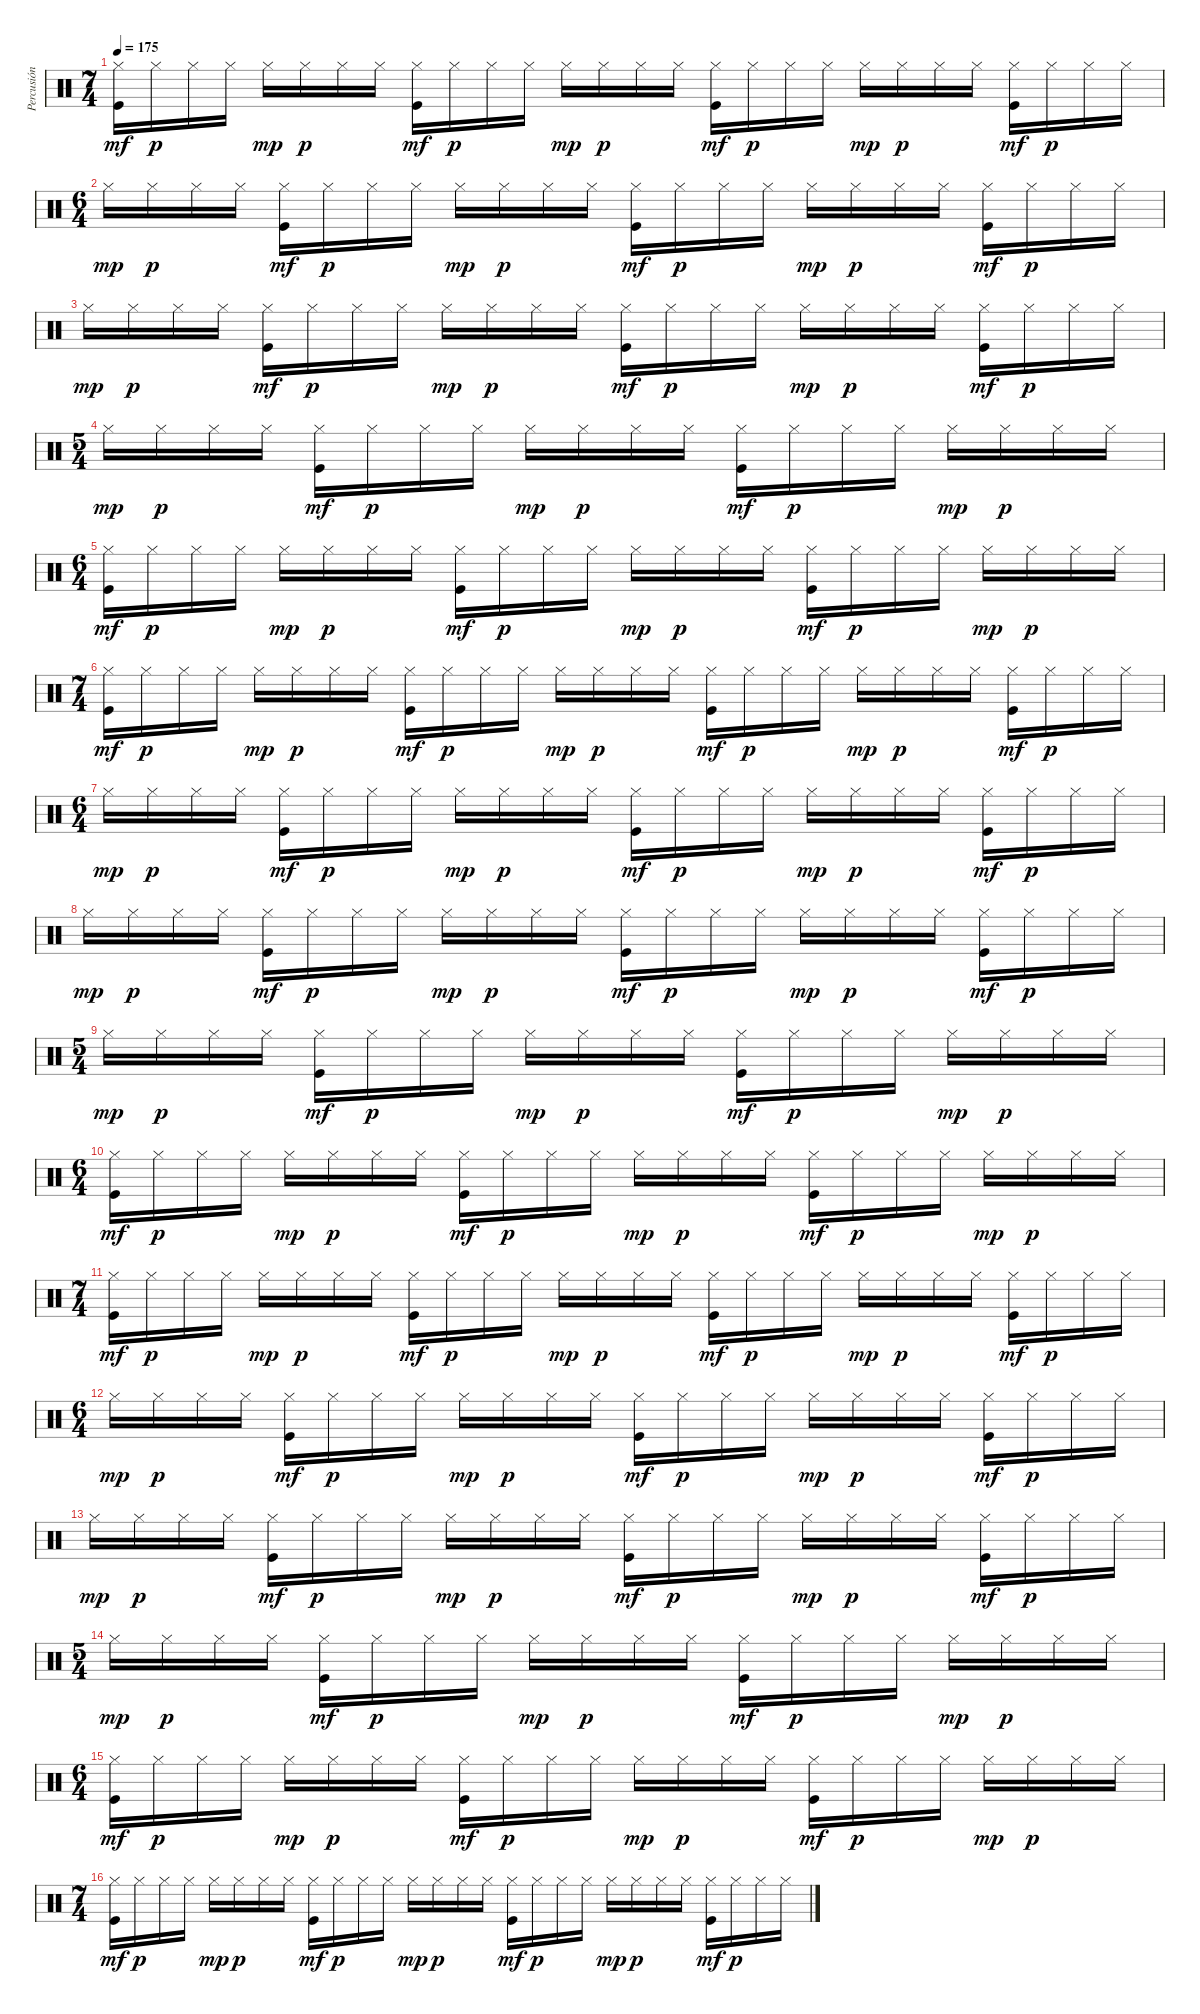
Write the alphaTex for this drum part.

\track ("Percusión" "Percusión") {instrument percussion}
\staff {score}
\articulation defaults
\ts (7 4)
\tempo 175
\clef neutral
\ks c
("Hi-Hat (closed)" "Kick (hit)").16{dy mf} "Hi-Hat (closed)".16{dy p} "Hi-Hat (closed)".16 "Hi-Hat (closed)".16 "Hi-Hat (closed)".16{dy mp} "Hi-Hat (closed)".16{dy p} "Hi-Hat (closed)".16 "Hi-Hat (closed)".16 ("Hi-Hat (closed)" "Kick (hit)").16{dy mf} "Hi-Hat (closed)".16{dy p} "Hi-Hat (closed)".16 "Hi-Hat (closed)".16 "Hi-Hat (closed)".16{dy mp} "Hi-Hat (closed)".16{dy p} "Hi-Hat (closed)".16 "Hi-Hat (closed)".16 ("Hi-Hat (closed)" "Kick (hit)").16{dy mf} "Hi-Hat (closed)".16{dy p} "Hi-Hat (closed)".16 "Hi-Hat (closed)".16 "Hi-Hat (closed)".16{dy mp} "Hi-Hat (closed)".16{dy p} "Hi-Hat (closed)".16 "Hi-Hat (closed)".16 ("Hi-Hat (closed)" "Kick (hit)").16{dy mf} "Hi-Hat (closed)".16{dy p} "Hi-Hat (closed)".16 "Hi-Hat (closed)".16 |
\ts (6 4)
"Hi-Hat (closed)".16{dy mp} "Hi-Hat (closed)".16{dy p} "Hi-Hat (closed)".16 "Hi-Hat (closed)".16 ("Hi-Hat (closed)" "Kick (hit)").16{dy mf} "Hi-Hat (closed)".16{dy p} "Hi-Hat (closed)".16 "Hi-Hat (closed)".16 "Hi-Hat (closed)".16{dy mp} "Hi-Hat (closed)".16{dy p} "Hi-Hat (closed)".16 "Hi-Hat (closed)".16 ("Hi-Hat (closed)" "Kick (hit)").16{dy mf} "Hi-Hat (closed)".16{dy p} "Hi-Hat (closed)".16 "Hi-Hat (closed)".16 "Hi-Hat (closed)".16{dy mp} "Hi-Hat (closed)".16{dy p} "Hi-Hat (closed)".16 "Hi-Hat (closed)".16 ("Hi-Hat (closed)" "Kick (hit)").16{dy mf} "Hi-Hat (closed)".16{dy p} "Hi-Hat (closed)".16 "Hi-Hat (closed)".16 |
"Hi-Hat (closed)".16{dy mp} "Hi-Hat (closed)".16{dy p} "Hi-Hat (closed)".16 "Hi-Hat (closed)".16 ("Hi-Hat (closed)" "Kick (hit)").16{dy mf} "Hi-Hat (closed)".16{dy p} "Hi-Hat (closed)".16 "Hi-Hat (closed)".16 "Hi-Hat (closed)".16{dy mp} "Hi-Hat (closed)".16{dy p} "Hi-Hat (closed)".16 "Hi-Hat (closed)".16 ("Hi-Hat (closed)" "Kick (hit)").16{dy mf} "Hi-Hat (closed)".16{dy p} "Hi-Hat (closed)".16 "Hi-Hat (closed)".16 "Hi-Hat (closed)".16{dy mp} "Hi-Hat (closed)".16{dy p} "Hi-Hat (closed)".16 "Hi-Hat (closed)".16 ("Hi-Hat (closed)" "Kick (hit)").16{dy mf} "Hi-Hat (closed)".16{dy p} "Hi-Hat (closed)".16 "Hi-Hat (closed)".16 |
\ts (5 4)
"Hi-Hat (closed)".16{dy mp} "Hi-Hat (closed)".16{dy p} "Hi-Hat (closed)".16 "Hi-Hat (closed)".16 ("Hi-Hat (closed)" "Kick (hit)").16{dy mf} "Hi-Hat (closed)".16{dy p} "Hi-Hat (closed)".16 "Hi-Hat (closed)".16 "Hi-Hat (closed)".16{dy mp} "Hi-Hat (closed)".16{dy p} "Hi-Hat (closed)".16 "Hi-Hat (closed)".16 ("Hi-Hat (closed)" "Kick (hit)").16{dy mf} "Hi-Hat (closed)".16{dy p} "Hi-Hat (closed)".16 "Hi-Hat (closed)".16 "Hi-Hat (closed)".16{dy mp} "Hi-Hat (closed)".16{dy p} "Hi-Hat (closed)".16 "Hi-Hat (closed)".16 |
\ts (6 4)
("Hi-Hat (closed)" "Kick (hit)").16{dy mf} "Hi-Hat (closed)".16{dy p} "Hi-Hat (closed)".16 "Hi-Hat (closed)".16 "Hi-Hat (closed)".16{dy mp} "Hi-Hat (closed)".16{dy p} "Hi-Hat (closed)".16 "Hi-Hat (closed)".16 ("Hi-Hat (closed)" "Kick (hit)").16{dy mf} "Hi-Hat (closed)".16{dy p} "Hi-Hat (closed)".16 "Hi-Hat (closed)".16 "Hi-Hat (closed)".16{dy mp} "Hi-Hat (closed)".16{dy p} "Hi-Hat (closed)".16 "Hi-Hat (closed)".16 ("Hi-Hat (closed)" "Kick (hit)").16{dy mf} "Hi-Hat (closed)".16{dy p} "Hi-Hat (closed)".16 "Hi-Hat (closed)".16 "Hi-Hat (closed)".16{dy mp} "Hi-Hat (closed)".16{dy p} "Hi-Hat (closed)".16 "Hi-Hat (closed)".16 |
\ts (7 4)
("Hi-Hat (closed)" "Kick (hit)").16{dy mf} "Hi-Hat (closed)".16{dy p} "Hi-Hat (closed)".16 "Hi-Hat (closed)".16 "Hi-Hat (closed)".16{dy mp} "Hi-Hat (closed)".16{dy p} "Hi-Hat (closed)".16 "Hi-Hat (closed)".16 ("Hi-Hat (closed)" "Kick (hit)").16{dy mf} "Hi-Hat (closed)".16{dy p} "Hi-Hat (closed)".16 "Hi-Hat (closed)".16 "Hi-Hat (closed)".16{dy mp} "Hi-Hat (closed)".16{dy p} "Hi-Hat (closed)".16 "Hi-Hat (closed)".16 ("Hi-Hat (closed)" "Kick (hit)").16{dy mf} "Hi-Hat (closed)".16{dy p} "Hi-Hat (closed)".16 "Hi-Hat (closed)".16 "Hi-Hat (closed)".16{dy mp} "Hi-Hat (closed)".16{dy p} "Hi-Hat (closed)".16 "Hi-Hat (closed)".16 ("Hi-Hat (closed)" "Kick (hit)").16{dy mf} "Hi-Hat (closed)".16{dy p} "Hi-Hat (closed)".16 "Hi-Hat (closed)".16 |
\ts (6 4)
"Hi-Hat (closed)".16{dy mp} "Hi-Hat (closed)".16{dy p} "Hi-Hat (closed)".16 "Hi-Hat (closed)".16 ("Hi-Hat (closed)" "Kick (hit)").16{dy mf} "Hi-Hat (closed)".16{dy p} "Hi-Hat (closed)".16 "Hi-Hat (closed)".16 "Hi-Hat (closed)".16{dy mp} "Hi-Hat (closed)".16{dy p} "Hi-Hat (closed)".16 "Hi-Hat (closed)".16 ("Hi-Hat (closed)" "Kick (hit)").16{dy mf} "Hi-Hat (closed)".16{dy p} "Hi-Hat (closed)".16 "Hi-Hat (closed)".16 "Hi-Hat (closed)".16{dy mp} "Hi-Hat (closed)".16{dy p} "Hi-Hat (closed)".16 "Hi-Hat (closed)".16 ("Hi-Hat (closed)" "Kick (hit)").16{dy mf} "Hi-Hat (closed)".16{dy p} "Hi-Hat (closed)".16 "Hi-Hat (closed)".16 |
"Hi-Hat (closed)".16{dy mp} "Hi-Hat (closed)".16{dy p} "Hi-Hat (closed)".16 "Hi-Hat (closed)".16 ("Hi-Hat (closed)" "Kick (hit)").16{dy mf} "Hi-Hat (closed)".16{dy p} "Hi-Hat (closed)".16 "Hi-Hat (closed)".16 "Hi-Hat (closed)".16{dy mp} "Hi-Hat (closed)".16{dy p} "Hi-Hat (closed)".16 "Hi-Hat (closed)".16 ("Hi-Hat (closed)" "Kick (hit)").16{dy mf} "Hi-Hat (closed)".16{dy p} "Hi-Hat (closed)".16 "Hi-Hat (closed)".16 "Hi-Hat (closed)".16{dy mp} "Hi-Hat (closed)".16{dy p} "Hi-Hat (closed)".16 "Hi-Hat (closed)".16 ("Hi-Hat (closed)" "Kick (hit)").16{dy mf} "Hi-Hat (closed)".16{dy p} "Hi-Hat (closed)".16 "Hi-Hat (closed)".16 |
\ts (5 4)
"Hi-Hat (closed)".16{dy mp} "Hi-Hat (closed)".16{dy p} "Hi-Hat (closed)".16 "Hi-Hat (closed)".16 ("Hi-Hat (closed)" "Kick (hit)").16{dy mf} "Hi-Hat (closed)".16{dy p} "Hi-Hat (closed)".16 "Hi-Hat (closed)".16 "Hi-Hat (closed)".16{dy mp} "Hi-Hat (closed)".16{dy p} "Hi-Hat (closed)".16 "Hi-Hat (closed)".16 ("Hi-Hat (closed)" "Kick (hit)").16{dy mf} "Hi-Hat (closed)".16{dy p} "Hi-Hat (closed)".16 "Hi-Hat (closed)".16 "Hi-Hat (closed)".16{dy mp} "Hi-Hat (closed)".16{dy p} "Hi-Hat (closed)".16 "Hi-Hat (closed)".16 |
\ts (6 4)
("Hi-Hat (closed)" "Kick (hit)").16{dy mf} "Hi-Hat (closed)".16{dy p} "Hi-Hat (closed)".16 "Hi-Hat (closed)".16 "Hi-Hat (closed)".16{dy mp} "Hi-Hat (closed)".16{dy p} "Hi-Hat (closed)".16 "Hi-Hat (closed)".16 ("Hi-Hat (closed)" "Kick (hit)").16{dy mf} "Hi-Hat (closed)".16{dy p} "Hi-Hat (closed)".16 "Hi-Hat (closed)".16 "Hi-Hat (closed)".16{dy mp} "Hi-Hat (closed)".16{dy p} "Hi-Hat (closed)".16 "Hi-Hat (closed)".16 ("Hi-Hat (closed)" "Kick (hit)").16{dy mf} "Hi-Hat (closed)".16{dy p} "Hi-Hat (closed)".16 "Hi-Hat (closed)".16 "Hi-Hat (closed)".16{dy mp} "Hi-Hat (closed)".16{dy p} "Hi-Hat (closed)".16 "Hi-Hat (closed)".16 |
\ts (7 4)
("Hi-Hat (closed)" "Kick (hit)").16{dy mf} "Hi-Hat (closed)".16{dy p} "Hi-Hat (closed)".16 "Hi-Hat (closed)".16 "Hi-Hat (closed)".16{dy mp} "Hi-Hat (closed)".16{dy p} "Hi-Hat (closed)".16 "Hi-Hat (closed)".16 ("Hi-Hat (closed)" "Kick (hit)").16{dy mf} "Hi-Hat (closed)".16{dy p} "Hi-Hat (closed)".16 "Hi-Hat (closed)".16 "Hi-Hat (closed)".16{dy mp} "Hi-Hat (closed)".16{dy p} "Hi-Hat (closed)".16 "Hi-Hat (closed)".16 ("Hi-Hat (closed)" "Kick (hit)").16{dy mf} "Hi-Hat (closed)".16{dy p} "Hi-Hat (closed)".16 "Hi-Hat (closed)".16 "Hi-Hat (closed)".16{dy mp} "Hi-Hat (closed)".16{dy p} "Hi-Hat (closed)".16 "Hi-Hat (closed)".16 ("Hi-Hat (closed)" "Kick (hit)").16{dy mf} "Hi-Hat (closed)".16{dy p} "Hi-Hat (closed)".16 "Hi-Hat (closed)".16 |
\ts (6 4)
"Hi-Hat (closed)".16{dy mp} "Hi-Hat (closed)".16{dy p} "Hi-Hat (closed)".16 "Hi-Hat (closed)".16 ("Hi-Hat (closed)" "Kick (hit)").16{dy mf} "Hi-Hat (closed)".16{dy p} "Hi-Hat (closed)".16 "Hi-Hat (closed)".16 "Hi-Hat (closed)".16{dy mp} "Hi-Hat (closed)".16{dy p} "Hi-Hat (closed)".16 "Hi-Hat (closed)".16 ("Hi-Hat (closed)" "Kick (hit)").16{dy mf} "Hi-Hat (closed)".16{dy p} "Hi-Hat (closed)".16 "Hi-Hat (closed)".16 "Hi-Hat (closed)".16{dy mp} "Hi-Hat (closed)".16{dy p} "Hi-Hat (closed)".16 "Hi-Hat (closed)".16 ("Hi-Hat (closed)" "Kick (hit)").16{dy mf} "Hi-Hat (closed)".16{dy p} "Hi-Hat (closed)".16 "Hi-Hat (closed)".16 |
"Hi-Hat (closed)".16{dy mp} "Hi-Hat (closed)".16{dy p} "Hi-Hat (closed)".16 "Hi-Hat (closed)".16 ("Hi-Hat (closed)" "Kick (hit)").16{dy mf} "Hi-Hat (closed)".16{dy p} "Hi-Hat (closed)".16 "Hi-Hat (closed)".16 "Hi-Hat (closed)".16{dy mp} "Hi-Hat (closed)".16{dy p} "Hi-Hat (closed)".16 "Hi-Hat (closed)".16 ("Hi-Hat (closed)" "Kick (hit)").16{dy mf} "Hi-Hat (closed)".16{dy p} "Hi-Hat (closed)".16 "Hi-Hat (closed)".16 "Hi-Hat (closed)".16{dy mp} "Hi-Hat (closed)".16{dy p} "Hi-Hat (closed)".16 "Hi-Hat (closed)".16 ("Hi-Hat (closed)" "Kick (hit)").16{dy mf} "Hi-Hat (closed)".16{dy p} "Hi-Hat (closed)".16 "Hi-Hat (closed)".16 |
\ts (5 4)
"Hi-Hat (closed)".16{dy mp} "Hi-Hat (closed)".16{dy p} "Hi-Hat (closed)".16 "Hi-Hat (closed)".16 ("Hi-Hat (closed)" "Kick (hit)").16{dy mf} "Hi-Hat (closed)".16{dy p} "Hi-Hat (closed)".16 "Hi-Hat (closed)".16 "Hi-Hat (closed)".16{dy mp} "Hi-Hat (closed)".16{dy p} "Hi-Hat (closed)".16 "Hi-Hat (closed)".16 ("Hi-Hat (closed)" "Kick (hit)").16{dy mf} "Hi-Hat (closed)".16{dy p} "Hi-Hat (closed)".16 "Hi-Hat (closed)".16 "Hi-Hat (closed)".16{dy mp} "Hi-Hat (closed)".16{dy p} "Hi-Hat (closed)".16 "Hi-Hat (closed)".16 |
\ts (6 4)
("Hi-Hat (closed)" "Kick (hit)").16{dy mf} "Hi-Hat (closed)".16{dy p} "Hi-Hat (closed)".16 "Hi-Hat (closed)".16 "Hi-Hat (closed)".16{dy mp} "Hi-Hat (closed)".16{dy p} "Hi-Hat (closed)".16 "Hi-Hat (closed)".16 ("Hi-Hat (closed)" "Kick (hit)").16{dy mf} "Hi-Hat (closed)".16{dy p} "Hi-Hat (closed)".16 "Hi-Hat (closed)".16 "Hi-Hat (closed)".16{dy mp} "Hi-Hat (closed)".16{dy p} "Hi-Hat (closed)".16 "Hi-Hat (closed)".16 ("Hi-Hat (closed)" "Kick (hit)").16{dy mf} "Hi-Hat (closed)".16{dy p} "Hi-Hat (closed)".16 "Hi-Hat (closed)".16 "Hi-Hat (closed)".16{dy mp} "Hi-Hat (closed)".16{dy p} "Hi-Hat (closed)".16 "Hi-Hat (closed)".16 |
\ts (7 4)
("Hi-Hat (closed)" "Kick (hit)").16{dy mf} "Hi-Hat (closed)".16{dy p} "Hi-Hat (closed)".16 "Hi-Hat (closed)".16 "Hi-Hat (closed)".16{dy mp} "Hi-Hat (closed)".16{dy p} "Hi-Hat (closed)".16 "Hi-Hat (closed)".16 ("Hi-Hat (closed)" "Kick (hit)").16{dy mf} "Hi-Hat (closed)".16{dy p} "Hi-Hat (closed)".16 "Hi-Hat (closed)".16 "Hi-Hat (closed)".16{dy mp} "Hi-Hat (closed)".16{dy p} "Hi-Hat (closed)".16 "Hi-Hat (closed)".16 ("Hi-Hat (closed)" "Kick (hit)").16{dy mf} "Hi-Hat (closed)".16{dy p} "Hi-Hat (closed)".16 "Hi-Hat (closed)".16 "Hi-Hat (closed)".16{dy mp} "Hi-Hat (closed)".16{dy p} "Hi-Hat (closed)".16 "Hi-Hat (closed)".16 ("Hi-Hat (closed)" "Kick (hit)").16{dy mf} "Hi-Hat (closed)".16{dy p} "Hi-Hat (closed)".16 "Hi-Hat (closed)".16
